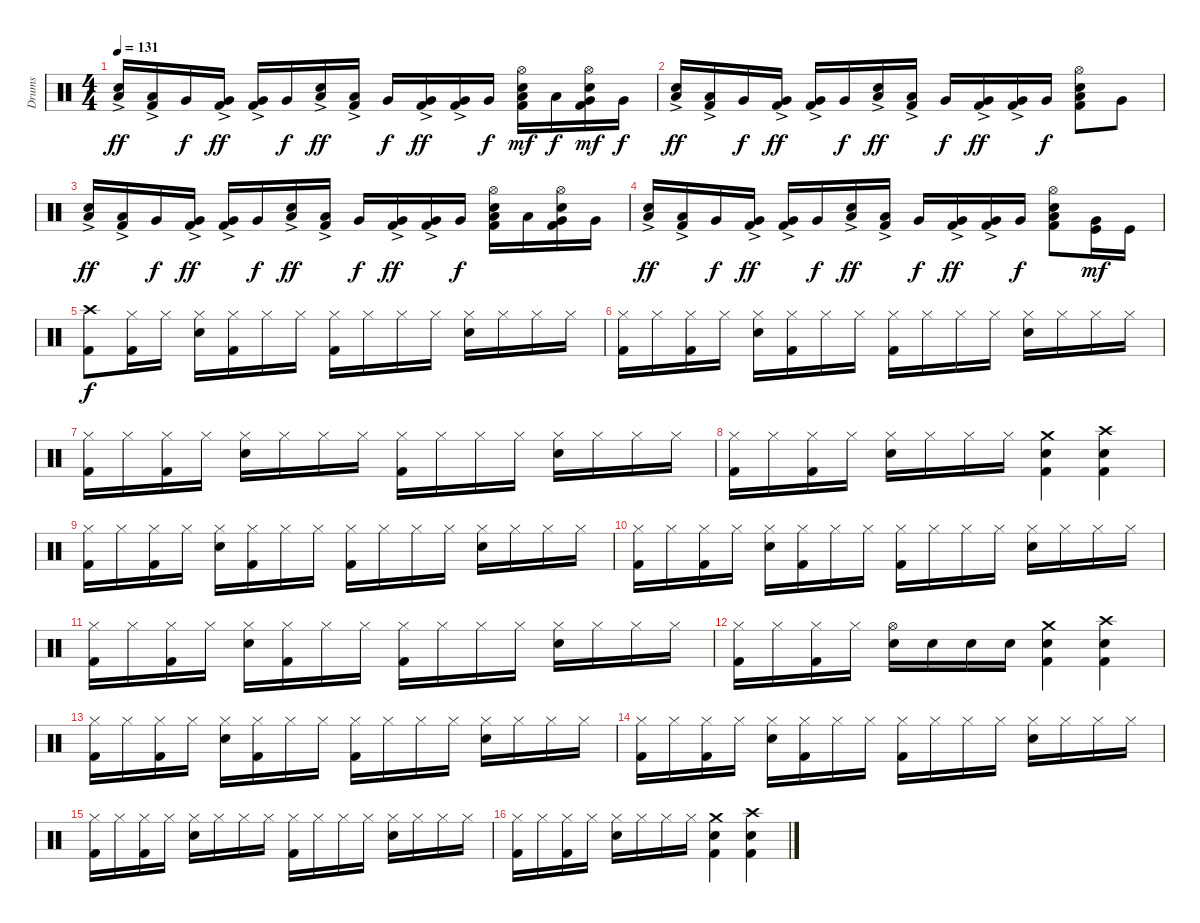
\track ("Drums" "Drums") {instrument percussion}
\staff {score}
\articulation defaults
\ts (4 4)
\tempo 131
\clef neutral
\ks c
("Snare (hit) 2" "Low Tom (hit)"{ac}).16{dy ff} ("Low Tom (hit)"{ac} "Kick (hit) 2").16 "Very Low Tom (hit)".16{dy f} ("Very Low Tom (hit)"{ac} "Kick (hit) 2").16{dy ff} ("Very Low Tom (hit)"{ac} "Kick (hit) 2").16 "Very Low Tom (hit)".16{dy f} ("Snare (hit) 2" "Low Tom (hit)"{ac}).16{dy ff} ("Low Tom (hit)"{ac} "Kick (hit) 2").16 "Very Low Tom (hit)".16{dy f} ("Very Low Tom (hit)"{ac} "Kick (hit) 2").16{dy ff} ("Very Low Tom (hit)"{ac} "Kick (hit) 2").16 "Very Low Tom (hit)".16{dy f} ("Hi-Hat (open)" "Snare (hit) 2" "Low Tom (hit)" "Kick (hit) 2").16{dy mf} "Low Tom (hit)".16{dy f} ("Hi-Hat (open)" "Snare (hit) 2" "Very Low Tom (hit)" "Kick (hit) 2").16{dy mf} "Very Low Tom (hit)".16{dy f} |
("Snare (hit) 2" "Low Tom (hit)"{ac}).16{dy ff} ("Low Tom (hit)"{ac} "Kick (hit) 2").16 "Very Low Tom (hit)".16{dy f} ("Very Low Tom (hit)"{ac} "Kick (hit) 2").16{dy ff} ("Very Low Tom (hit)"{ac} "Kick (hit) 2").16 "Very Low Tom (hit)".16{dy f} ("Snare (hit) 2" "Low Tom (hit)"{ac}).16{dy ff} ("Low Tom (hit)"{ac} "Kick (hit) 2").16 "Very Low Tom (hit)".16{dy f} ("Very Low Tom (hit)"{ac} "Kick (hit) 2").16{dy ff} ("Very Low Tom (hit)"{ac} "Kick (hit) 2").16 "Very Low Tom (hit)".16{dy f} ("Hi-Hat (open)" "Snare (hit) 2" "Low Tom (hit)" "Kick (hit) 2").8 "Very Low Tom (hit)".8 |
("Snare (hit) 2" "Low Tom (hit)"{ac}).16{dy ff} ("Low Tom (hit)"{ac} "Kick (hit) 2").16 "Very Low Tom (hit)".16{dy f} ("Very Low Tom (hit)"{ac} "Kick (hit) 2").16{dy ff} ("Very Low Tom (hit)"{ac} "Kick (hit) 2").16 "Very Low Tom (hit)".16{dy f} ("Snare (hit) 2" "Low Tom (hit)"{ac}).16{dy ff} ("Low Tom (hit)"{ac} "Kick (hit) 2").16 "Very Low Tom (hit)".16{dy f} ("Very Low Tom (hit)"{ac} "Kick (hit) 2").16{dy ff} ("Very Low Tom (hit)"{ac} "Kick (hit) 2").16 "Very Low Tom (hit)".16{dy f} ("Hi-Hat (open)" "Snare (hit) 2" "Low Tom (hit)" "Kick (hit) 2").16 "Low Tom (hit)".16 ("Hi-Hat (open)" "Snare (hit) 2" "Very Low Tom (hit)" "Kick (hit) 2").16 "Very Low Tom (hit)".16 |
("Snare (hit) 2" "Low Tom (hit)"{ac}).16{dy ff} ("Low Tom (hit)"{ac} "Kick (hit) 2").16 "Very Low Tom (hit)".16{dy f} ("Very Low Tom (hit)"{ac} "Kick (hit) 2").16{dy ff} ("Very Low Tom (hit)"{ac} "Kick (hit) 2").16 "Very Low Tom (hit)".16{dy f} ("Snare (hit) 2" "Low Tom (hit)"{ac}).16{dy ff} ("Low Tom (hit)"{ac} "Kick (hit) 2").16 "Very Low Tom (hit)".16{dy f} ("Very Low Tom (hit)"{ac} "Kick (hit) 2").16{dy ff} ("Very Low Tom (hit)"{ac} "Kick (hit) 2").16 "Very Low Tom (hit)".16{dy f} ("Hi-Hat (open)" "Snare (hit) 2" "Low Tom (hit)" "Kick (hit) 2").8 ("Kick (hit)" "Very Low Tom (hit)").16{dy mf} "Kick (hit)".16 |
("Crash high (hit)" "Kick (hit) 2").8{dy f} ("Hi-Hat (closed)" "Kick (hit) 2").16 "Hi-Hat (closed)".16 ("Hi-Hat (closed)" "Snare (hit) 2").16 ("Hi-Hat (closed)" "Kick (hit) 2").16 "Hi-Hat (closed)".16 "Hi-Hat (closed)".16 ("Hi-Hat (closed)" "Kick (hit) 2").16 "Hi-Hat (closed)".16 "Hi-Hat (closed)".16 "Hi-Hat (closed)".16 ("Hi-Hat (closed)" "Snare (hit) 2").16 "Hi-Hat (closed)".16 "Hi-Hat (closed)".16 "Hi-Hat (closed)".16 |
("Hi-Hat (closed)" "Kick (hit) 2").16 "Hi-Hat (closed)".16 ("Hi-Hat (closed)" "Kick (hit) 2").16 "Hi-Hat (closed)".16 ("Hi-Hat (closed)" "Snare (hit) 2").16 ("Hi-Hat (closed)" "Kick (hit) 2").16 "Hi-Hat (closed)".16 "Hi-Hat (closed)".16 ("Hi-Hat (closed)" "Kick (hit) 2").16 "Hi-Hat (closed)".16 "Hi-Hat (closed)".16 "Hi-Hat (closed)".16 ("Hi-Hat (closed)" "Snare (hit) 2").16 "Hi-Hat (closed)".16 "Hi-Hat (closed)".16 "Hi-Hat (closed)".16 |
("Hi-Hat (closed)" "Kick (hit) 2").16 "Hi-Hat (closed)".16 ("Hi-Hat (closed)" "Kick (hit) 2").16 "Hi-Hat (closed)".16 ("Hi-Hat (closed)" "Snare (hit) 2").16 "Hi-Hat (closed)".16 "Hi-Hat (closed)".16 "Hi-Hat (closed)".16 ("Hi-Hat (closed)" "Kick (hit) 2").16 "Hi-Hat (closed)".16 "Hi-Hat (closed)".16 "Hi-Hat (closed)".16 ("Hi-Hat (closed)" "Snare (hit) 2").16 "Hi-Hat (closed)".16 "Hi-Hat (closed)".16 "Hi-Hat (closed)".16 |
("Hi-Hat (closed)" "Kick (hit) 2").16 "Hi-Hat (closed)".16 ("Hi-Hat (closed)" "Kick (hit) 2").16 "Hi-Hat (closed)".16 ("Hi-Hat (closed)" "Snare (hit) 2").16 "Hi-Hat (closed)".16 "Hi-Hat (closed)".16 "Hi-Hat (closed)".16 ("Crash medium (hit)" "Snare (hit) 2" "Kick (hit) 2").4 ("Crash high (hit)" "Snare (hit) 2" "Kick (hit) 2").4 |
("Hi-Hat (closed)" "Kick (hit) 2").16 "Hi-Hat (closed)".16 ("Hi-Hat (closed)" "Kick (hit) 2").16 "Hi-Hat (closed)".16 ("Hi-Hat (closed)" "Snare (hit) 2").16 ("Hi-Hat (closed)" "Kick (hit) 2").16 "Hi-Hat (closed)".16 "Hi-Hat (closed)".16 ("Hi-Hat (closed)" "Kick (hit) 2").16 "Hi-Hat (closed)".16 "Hi-Hat (closed)".16 "Hi-Hat (closed)".16 ("Hi-Hat (closed)" "Snare (hit) 2").16 "Hi-Hat (closed)".16 "Hi-Hat (closed)".16 "Hi-Hat (closed)".16 |
("Hi-Hat (closed)" "Kick (hit) 2").16 "Hi-Hat (closed)".16 ("Hi-Hat (closed)" "Kick (hit) 2").16 "Hi-Hat (closed)".16 ("Hi-Hat (closed)" "Snare (hit) 2").16 ("Hi-Hat (closed)" "Kick (hit) 2").16 "Hi-Hat (closed)".16 "Hi-Hat (closed)".16 ("Hi-Hat (closed)" "Kick (hit) 2").16 "Hi-Hat (closed)".16 "Hi-Hat (closed)".16 "Hi-Hat (closed)".16 ("Hi-Hat (closed)" "Snare (hit) 2").16 "Hi-Hat (closed)".16 "Hi-Hat (closed)".16 "Hi-Hat (closed)".16 |
("Hi-Hat (closed)" "Kick (hit) 2").16 "Hi-Hat (closed)".16 ("Hi-Hat (closed)" "Kick (hit) 2").16 "Hi-Hat (closed)".16 ("Hi-Hat (closed)" "Snare (hit) 2").16 ("Hi-Hat (closed)" "Kick (hit) 2").16 "Hi-Hat (closed)".16 "Hi-Hat (closed)".16 ("Hi-Hat (closed)" "Kick (hit) 2").16 "Hi-Hat (closed)".16 "Hi-Hat (closed)".16 "Hi-Hat (closed)".16 ("Hi-Hat (closed)" "Snare (hit) 2").16 "Hi-Hat (closed)".16 "Hi-Hat (closed)".16 "Hi-Hat (closed)".16 |
("Hi-Hat (closed)" "Kick (hit) 2").16 "Hi-Hat (closed)".16 ("Hi-Hat (closed)" "Kick (hit) 2").16 "Hi-Hat (closed)".16 ("Hi-Hat (open)" "Snare (hit) 2").16 "Snare (hit) 2".16 "Snare (hit) 2".16 "Snare (hit) 2".16 ("Crash medium (hit)" "Snare (hit) 2" "Kick (hit) 2").4 ("Crash high (hit)" "Snare (hit) 2" "Kick (hit) 2").4 |
("Hi-Hat (closed)" "Kick (hit) 2").16 "Hi-Hat (closed)".16 ("Hi-Hat (closed)" "Kick (hit) 2").16 "Hi-Hat (closed)".16 ("Hi-Hat (closed)" "Snare (hit) 2").16 ("Hi-Hat (closed)" "Kick (hit) 2").16 "Hi-Hat (closed)".16 "Hi-Hat (closed)".16 ("Hi-Hat (closed)" "Kick (hit) 2").16 "Hi-Hat (closed)".16 "Hi-Hat (closed)".16 "Hi-Hat (closed)".16 ("Hi-Hat (closed)" "Snare (hit) 2").16 "Hi-Hat (closed)".16 "Hi-Hat (closed)".16 "Hi-Hat (closed)".16 |
("Hi-Hat (closed)" "Kick (hit) 2").16 "Hi-Hat (closed)".16 ("Hi-Hat (closed)" "Kick (hit) 2").16 "Hi-Hat (closed)".16 ("Hi-Hat (closed)" "Snare (hit) 2").16 ("Hi-Hat (closed)" "Kick (hit) 2").16 "Hi-Hat (closed)".16 "Hi-Hat (closed)".16 ("Hi-Hat (closed)" "Kick (hit) 2").16 "Hi-Hat (closed)".16 "Hi-Hat (closed)".16 "Hi-Hat (closed)".16 ("Hi-Hat (closed)" "Snare (hit) 2").16 "Hi-Hat (closed)".16 "Hi-Hat (closed)".16 "Hi-Hat (closed)".16 |
("Hi-Hat (closed)" "Kick (hit) 2").16 "Hi-Hat (closed)".16 ("Hi-Hat (closed)" "Kick (hit) 2").16 "Hi-Hat (closed)".16 ("Hi-Hat (closed)" "Snare (hit) 2").16 "Hi-Hat (closed)".16 "Hi-Hat (closed)".16 "Hi-Hat (closed)".16 ("Hi-Hat (closed)" "Kick (hit) 2").16 "Hi-Hat (closed)".16 "Hi-Hat (closed)".16 "Hi-Hat (closed)".16 ("Hi-Hat (closed)" "Snare (hit) 2").16 "Hi-Hat (closed)".16 "Hi-Hat (closed)".16 "Hi-Hat (closed)".16 |
("Hi-Hat (closed)" "Kick (hit) 2").16 "Hi-Hat (closed)".16 ("Hi-Hat (closed)" "Kick (hit) 2").16 "Hi-Hat (closed)".16 ("Hi-Hat (closed)" "Snare (hit) 2").16 "Hi-Hat (closed)".16 "Hi-Hat (closed)".16 "Hi-Hat (closed)".16 ("Crash medium (hit)" "Snare (hit) 2" "Kick (hit) 2").4 ("Crash high (hit)" "Snare (hit) 2" "Kick (hit) 2").4
